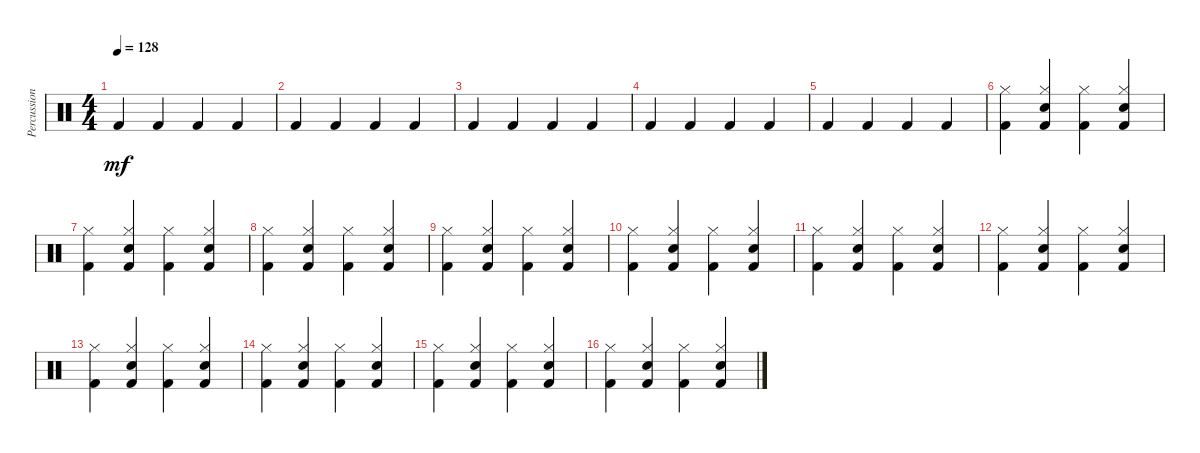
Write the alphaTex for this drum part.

\track ("Percussions" "Percussion") {instrument percussion}
\staff {score}
\articulation defaults
\ts (4 4)
\tempo 128
\clef neutral
\ks c "Kick (hit) 2".4{dy mf} "Kick (hit) 2".4 "Kick (hit) 2".4 "Kick (hit) 2".4
|
"Kick (hit) 2".4 "Kick (hit) 2".4 "Kick (hit) 2".4 "Kick (hit) 2".4 |
"Kick (hit) 2".4 "Kick (hit) 2".4 "Kick (hit) 2".4 "Kick (hit) 2".4 |
"Kick (hit) 2".4 "Kick (hit) 2".4 "Kick (hit) 2".4 "Kick (hit) 2".4 |
"Kick (hit) 2".4 "Kick (hit) 2".4 "Kick (hit) 2".4 "Kick (hit) 2".4 |
("Kick (hit) 2" "Hi-Hat (closed)").4 ("Kick (hit) 2" "Hi-Hat (closed)" "Snare (hit) 2").4 ("Kick (hit) 2" "Hi-Hat (closed)").4 ("Kick (hit) 2" "Hi-Hat (closed)" "Snare (hit) 2").4 |
("Kick (hit) 2" "Hi-Hat (closed)").4 ("Kick (hit) 2" "Hi-Hat (closed)" "Snare (hit) 2").4 ("Kick (hit) 2" "Hi-Hat (closed)").4 ("Kick (hit) 2" "Hi-Hat (closed)" "Snare (hit) 2").4 |
("Kick (hit) 2" "Hi-Hat (closed)").4 ("Kick (hit) 2" "Hi-Hat (closed)" "Snare (hit) 2").4 ("Kick (hit) 2" "Hi-Hat (closed)").4 ("Kick (hit) 2" "Hi-Hat (closed)" "Snare (hit) 2").4 |
("Kick (hit) 2" "Hi-Hat (closed)").4 ("Kick (hit) 2" "Hi-Hat (closed)" "Snare (hit) 2").4 ("Kick (hit) 2" "Hi-Hat (closed)").4 ("Kick (hit) 2" "Hi-Hat (closed)" "Snare (hit) 2").4 |
("Kick (hit) 2" "Hi-Hat (closed)").4 ("Kick (hit) 2" "Hi-Hat (closed)" "Snare (hit) 2").4 ("Kick (hit) 2" "Hi-Hat (closed)").4 ("Kick (hit) 2" "Hi-Hat (closed)" "Snare (hit) 2").4 |
("Kick (hit) 2" "Hi-Hat (closed)").4 ("Kick (hit) 2" "Hi-Hat (closed)" "Snare (hit) 2").4 ("Kick (hit) 2" "Hi-Hat (closed)").4 ("Kick (hit) 2" "Hi-Hat (closed)" "Snare (hit) 2").4 |
("Kick (hit) 2" "Hi-Hat (closed)").4 ("Kick (hit) 2" "Hi-Hat (closed)" "Snare (hit) 2").4 ("Kick (hit) 2" "Hi-Hat (closed)").4 ("Kick (hit) 2" "Hi-Hat (closed)" "Snare (hit) 2").4 |
("Kick (hit) 2" "Hi-Hat (closed)").4 ("Kick (hit) 2" "Hi-Hat (closed)" "Snare (hit) 2").4 ("Kick (hit) 2" "Hi-Hat (closed)").4 ("Kick (hit) 2" "Hi-Hat (closed)" "Snare (hit) 2").4 |
("Kick (hit) 2" "Hi-Hat (closed)").4 ("Kick (hit) 2" "Hi-Hat (closed)" "Snare (hit) 2").4 ("Kick (hit) 2" "Hi-Hat (closed)").4 ("Kick (hit) 2" "Hi-Hat (closed)" "Snare (hit) 2").4 |
("Kick (hit) 2" "Hi-Hat (closed)").4 ("Kick (hit) 2" "Hi-Hat (closed)" "Snare (hit) 2").4 ("Kick (hit) 2" "Hi-Hat (closed)").4 ("Kick (hit) 2" "Hi-Hat (closed)" "Snare (hit) 2").4 |
("Kick (hit) 2" "Hi-Hat (closed)").4 ("Kick (hit) 2" "Hi-Hat (closed)" "Snare (hit) 2").4 ("Kick (hit) 2" "Hi-Hat (closed)").4 ("Kick (hit) 2" "Hi-Hat (closed)" "Snare (hit) 2").4
